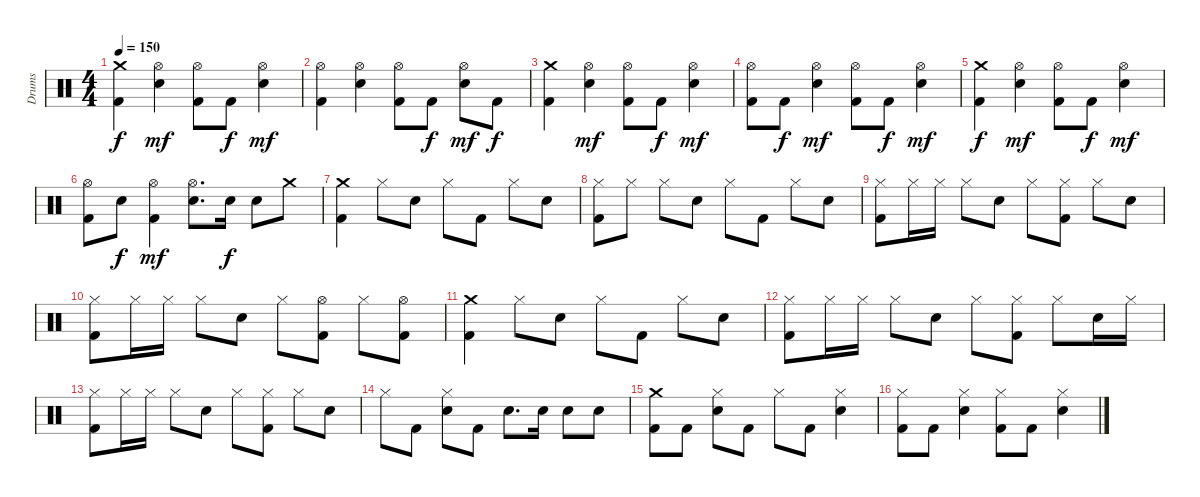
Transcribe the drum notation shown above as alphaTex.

\track ("Drums" "Drums") {instrument percussion}
\staff {score}
\articulation defaults
\ts (4 4)
\tempo 150
\clef neutral
\ks c
("Crash medium (hit)" "Kick (hit) 2").4{dy f} ("Hi-Hat (open)" "Electric Snare (hit)").4{dy mf} ("Hi-Hat (open)" "Kick (hit) 2").8 "Kick (hit) 2".8{dy f} ("Hi-Hat (open)" "Electric Snare (hit)").4{dy mf} |
("Hi-Hat (open)" "Kick (hit) 2").4 ("Hi-Hat (open)" "Electric Snare (hit)").4 ("Hi-Hat (open)" "Kick (hit) 2").8 "Kick (hit) 2".8{dy f} ("Hi-Hat (open)" "Electric Snare (hit)").8{dy mf} "Kick (hit) 2".8{dy f} |
("Crash medium (hit)" "Kick (hit) 2").4 ("Hi-Hat (open)" "Electric Snare (hit)").4{dy mf} ("Hi-Hat (open)" "Kick (hit) 2").8 "Kick (hit) 2".8{dy f} ("Hi-Hat (open)" "Electric Snare (hit)").4{dy mf} |
("Hi-Hat (open)" "Kick (hit) 2").8 "Kick (hit) 2".8{dy f} ("Hi-Hat (open)" "Electric Snare (hit)").4{dy mf} ("Hi-Hat (open)" "Kick (hit) 2").8 "Kick (hit) 2".8{dy f} ("Hi-Hat (open)" "Electric Snare (hit)").4{dy mf} |
("Crash medium (hit)" "Kick (hit) 2").4{dy f} ("Hi-Hat (open)" "Electric Snare (hit)").4{dy mf} ("Hi-Hat (open)" "Kick (hit) 2").8 "Kick (hit) 2".8{dy f} ("Hi-Hat (open)" "Electric Snare (hit)").4{dy mf} |
("Hi-Hat (open)" "Kick (hit) 2").8 "Electric Snare (hit)".8{dy f} ("Hi-Hat (open)" "Kick (hit) 2").4{dy mf} ("Hi-Hat (open)" "Electric Snare (hit)").8{d} "Electric Snare (hit)".16{dy f} "Electric Snare (hit)".8 "Crash medium (hit)".8 |
("Crash medium (hit)" "Kick (hit) 2").4 "Hi-Hat (closed)".8 "Electric Snare (hit)".8 "Hi-Hat (closed)".8 "Kick (hit) 2".8 "Hi-Hat (closed)".8 "Electric Snare (hit)".8 |
("Hi-Hat (closed)" "Kick (hit) 2").8 "Hi-Hat (closed)".8 "Hi-Hat (closed)".8 "Electric Snare (hit)".8 "Hi-Hat (closed)".8 "Kick (hit) 2".8 "Hi-Hat (closed)".8 "Electric Snare (hit)".8 |
("Hi-Hat (closed)" "Kick (hit) 2").8 "Hi-Hat (closed)".16 "Hi-Hat (closed)".16 "Hi-Hat (closed)".8 "Electric Snare (hit)".8 "Hi-Hat (closed)".8 ("Hi-Hat (closed)" "Kick (hit) 2").8 "Hi-Hat (closed)".8 "Electric Snare (hit)".8 |
("Hi-Hat (closed)" "Kick (hit) 2").8 "Hi-Hat (closed)".16 "Hi-Hat (closed)".16 "Hi-Hat (closed)".8 "Electric Snare (hit)".8 "Hi-Hat (closed)".8 ("Hi-Hat (open)" "Kick (hit) 2").8 "Hi-Hat (closed)".8 ("Hi-Hat (open)" "Kick (hit) 2").8 |
("Crash medium (hit)" "Kick (hit) 2").4 "Hi-Hat (closed)".8 "Electric Snare (hit)".8 "Hi-Hat (closed)".8 "Kick (hit) 2".8 "Hi-Hat (closed)".8 "Electric Snare (hit)".8 |
("Hi-Hat (closed)" "Kick (hit) 2").8 "Hi-Hat (closed)".16 "Hi-Hat (closed)".16 "Hi-Hat (closed)".8 "Electric Snare (hit)".8 "Hi-Hat (closed)".8 ("Hi-Hat (closed)" "Kick (hit) 2").8 "Hi-Hat (closed)".8 "Electric Snare (hit)".16 "Hi-Hat (closed)".16 |
("Hi-Hat (closed)" "Kick (hit) 2").8 "Hi-Hat (closed)".16 "Hi-Hat (closed)".16 "Hi-Hat (closed)".8 "Electric Snare (hit)".8 "Hi-Hat (closed)".8 ("Hi-Hat (closed)" "Kick (hit) 2").8 "Hi-Hat (closed)".8 "Electric Snare (hit)".8 |
"Hi-Hat (closed)".8 "Kick (hit) 2".8 ("Hi-Hat (closed)" "Electric Snare (hit)").8 "Kick (hit) 2".8 "Electric Snare (hit)".8{d} "Electric Snare (hit)".16 "Electric Snare (hit)".8 "Electric Snare (hit)".8 |
("Crash medium (hit)" "Kick (hit) 2").8 "Kick (hit) 2".8 ("Hi-Hat (closed)" "Electric Snare (hit)").8 "Kick (hit) 2".8 "Hi-Hat (closed)".8 "Kick (hit) 2".8 ("Hi-Hat (closed)" "Electric Snare (hit)").4 |
("Hi-Hat (closed)" "Kick (hit) 2").8 "Kick (hit) 2".8 ("Hi-Hat (closed)" "Electric Snare (hit)").4 ("Hi-Hat (closed)" "Kick (hit) 2").8 "Kick (hit) 2".8 ("Hi-Hat (closed)" "Electric Snare (hit)").4
